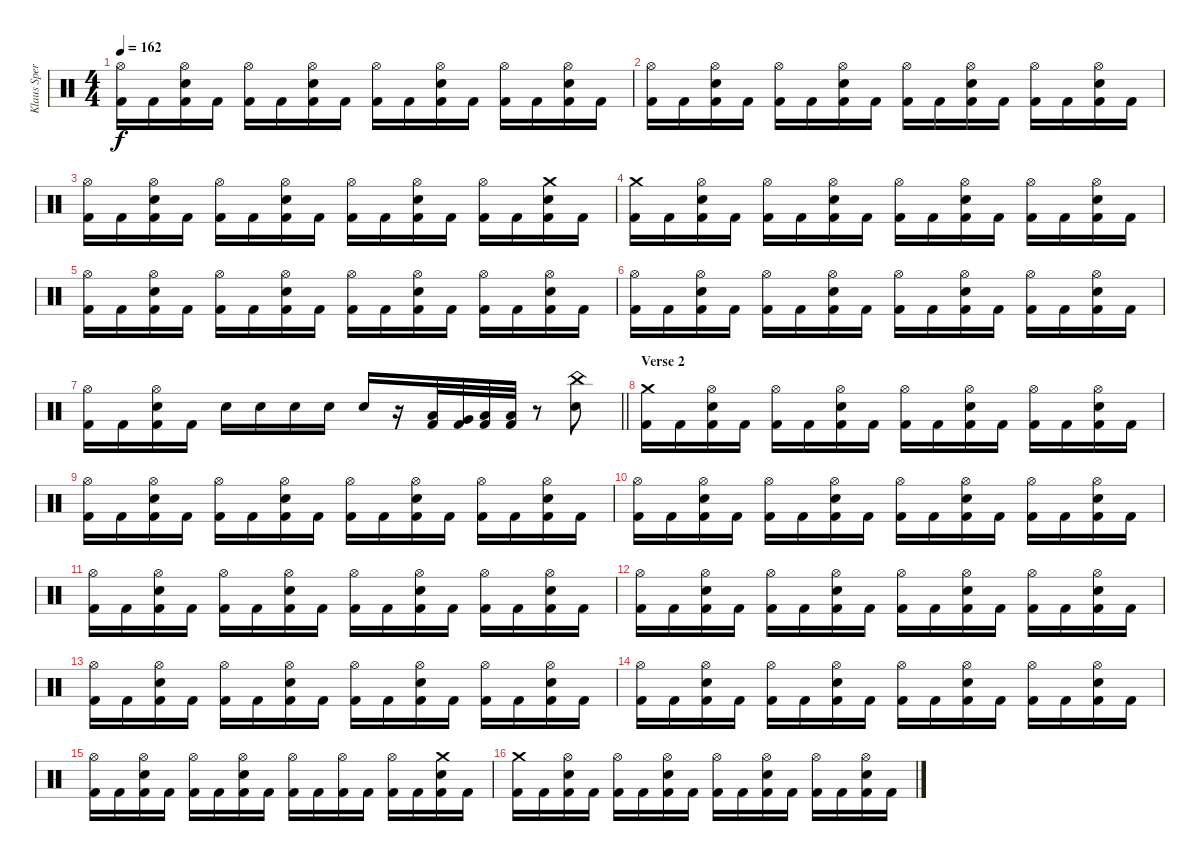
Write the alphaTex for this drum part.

\track ("Klaus Sperling" "Klaus Sper") {instrument percussion}
\staff {score}
\articulation defaults
\ts (4 4)
\tempo 162
\clef neutral
\ks c
("Hi-Hat (open)" "Kick (hit) 2").16{dy f} "Kick (hit) 2".16 ("Hi-Hat (open)" "Electric Snare (hit)" "Kick (hit) 2").16 "Kick (hit) 2".16 ("Hi-Hat (open)" "Kick (hit) 2").16 "Kick (hit) 2".16 ("Hi-Hat (open)" "Electric Snare (hit)" "Kick (hit) 2").16 "Kick (hit) 2".16 ("Hi-Hat (open)" "Kick (hit) 2").16 "Kick (hit) 2".16 ("Hi-Hat (open)" "Electric Snare (hit)" "Kick (hit) 2").16 "Kick (hit) 2".16 ("Hi-Hat (open)" "Kick (hit) 2").16 "Kick (hit) 2".16 ("Hi-Hat (open)" "Electric Snare (hit)" "Kick (hit) 2").16 "Kick (hit) 2".16 |
("Hi-Hat (open)" "Kick (hit) 2").16 "Kick (hit) 2".16 ("Hi-Hat (open)" "Electric Snare (hit)" "Kick (hit) 2").16 "Kick (hit) 2".16 ("Hi-Hat (open)" "Kick (hit) 2").16 "Kick (hit) 2".16 ("Hi-Hat (open)" "Electric Snare (hit)" "Kick (hit) 2").16 "Kick (hit) 2".16 ("Hi-Hat (open)" "Kick (hit) 2").16 "Kick (hit) 2".16 ("Hi-Hat (open)" "Electric Snare (hit)" "Kick (hit) 2").16 "Kick (hit) 2".16 ("Hi-Hat (open)" "Kick (hit) 2").16 "Kick (hit) 2".16 ("Hi-Hat (open)" "Electric Snare (hit)" "Kick (hit) 2").16 "Kick (hit) 2".16 |
("Hi-Hat (open)" "Kick (hit) 2").16 "Kick (hit) 2".16 ("Hi-Hat (open)" "Electric Snare (hit)" "Kick (hit) 2").16 "Kick (hit) 2".16 ("Hi-Hat (open)" "Kick (hit) 2").16 "Kick (hit) 2".16 ("Hi-Hat (open)" "Electric Snare (hit)" "Kick (hit) 2").16 "Kick (hit) 2".16 ("Hi-Hat (open)" "Kick (hit) 2").16 "Kick (hit) 2".16 ("Hi-Hat (open)" "Electric Snare (hit)" "Kick (hit) 2").16 "Kick (hit) 2".16 ("Hi-Hat (open)" "Kick (hit) 2").16 "Kick (hit) 2".16 ("Crash medium (hit)" "Electric Snare (hit)" "Kick (hit) 2").16 "Kick (hit) 2".16 |
("Crash medium (hit)" "Kick (hit) 2").16 "Kick (hit) 2".16 ("Hi-Hat (open)" "Electric Snare (hit)" "Kick (hit) 2").16 "Kick (hit) 2".16 ("Hi-Hat (open)" "Kick (hit) 2").16 "Kick (hit) 2".16 ("Hi-Hat (open)" "Electric Snare (hit)" "Kick (hit) 2").16 "Kick (hit) 2".16 ("Hi-Hat (open)" "Kick (hit) 2").16 "Kick (hit) 2".16 ("Hi-Hat (open)" "Electric Snare (hit)" "Kick (hit) 2").16 "Kick (hit) 2".16 ("Hi-Hat (open)" "Kick (hit) 2").16 "Kick (hit) 2".16 ("Hi-Hat (open)" "Electric Snare (hit)" "Kick (hit) 2").16 "Kick (hit) 2".16 |
("Hi-Hat (open)" "Kick (hit) 2").16 "Kick (hit) 2".16 ("Hi-Hat (open)" "Electric Snare (hit)" "Kick (hit) 2").16 "Kick (hit) 2".16 ("Hi-Hat (open)" "Kick (hit) 2").16 "Kick (hit) 2".16 ("Hi-Hat (open)" "Electric Snare (hit)" "Kick (hit) 2").16 "Kick (hit) 2".16 ("Hi-Hat (open)" "Kick (hit) 2").16 "Kick (hit) 2".16 ("Hi-Hat (open)" "Electric Snare (hit)" "Kick (hit) 2").16 "Kick (hit) 2".16 ("Hi-Hat (open)" "Kick (hit) 2").16 "Kick (hit) 2".16 ("Hi-Hat (open)" "Electric Snare (hit)" "Kick (hit) 2").16 "Kick (hit) 2".16 |
("Hi-Hat (open)" "Kick (hit) 2").16 "Kick (hit) 2".16 ("Hi-Hat (open)" "Electric Snare (hit)" "Kick (hit) 2").16 "Kick (hit) 2".16 ("Hi-Hat (open)" "Kick (hit) 2").16 "Kick (hit) 2".16 ("Hi-Hat (open)" "Electric Snare (hit)" "Kick (hit) 2").16 "Kick (hit) 2".16 ("Hi-Hat (open)" "Kick (hit) 2").16 "Kick (hit) 2".16 ("Hi-Hat (open)" "Electric Snare (hit)" "Kick (hit) 2").16 "Kick (hit) 2".16 ("Hi-Hat (open)" "Kick (hit) 2").16 "Kick (hit) 2".16 ("Hi-Hat (open)" "Electric Snare (hit)" "Kick (hit) 2").16 "Kick (hit) 2".16 |
\barLineRight lightlight
("Hi-Hat (open)" "Kick (hit) 2").16 "Kick (hit) 2".16 ("Hi-Hat (open)" "Electric Snare (hit)" "Kick (hit) 2").16 "Kick (hit) 2".16 "Electric Snare (hit)".16 "Electric Snare (hit)".16 "Electric Snare (hit)".16 "Electric Snare (hit)".16 "Electric Snare (hit)".16 r.16 ("Low Tom (hit)" "Kick (hit) 2").32 ("Very Low Tom (hit)" "Kick (hit) 2").32 ("Low Floor Tom (hit)" "Kick (hit) 2").32 ("Low Floor Tom (hit)" "Kick (hit) 2").32 r.8 ("China (hit)" "Electric Snare (hit)").8 |
\section ("" "Verse 2")
("Crash medium (hit)" "Kick (hit) 2").16 "Kick (hit) 2".16 ("Hi-Hat (open)" "Electric Snare (hit)" "Kick (hit) 2").16 "Kick (hit) 2".16 ("Hi-Hat (open)" "Kick (hit) 2").16 "Kick (hit) 2".16 ("Hi-Hat (open)" "Electric Snare (hit)" "Kick (hit) 2").16 "Kick (hit) 2".16 ("Hi-Hat (open)" "Kick (hit) 2").16 "Kick (hit) 2".16 ("Hi-Hat (open)" "Electric Snare (hit)" "Kick (hit) 2").16 "Kick (hit) 2".16 ("Hi-Hat (open)" "Kick (hit) 2").16 "Kick (hit) 2".16 ("Hi-Hat (open)" "Electric Snare (hit)" "Kick (hit) 2").16 "Kick (hit) 2".16 |
("Hi-Hat (open)" "Kick (hit) 2").16 "Kick (hit) 2".16 ("Hi-Hat (open)" "Electric Snare (hit)" "Kick (hit) 2").16 "Kick (hit) 2".16 ("Hi-Hat (open)" "Kick (hit) 2").16 "Kick (hit) 2".16 ("Hi-Hat (open)" "Electric Snare (hit)" "Kick (hit) 2").16 "Kick (hit) 2".16 ("Hi-Hat (open)" "Kick (hit) 2").16 "Kick (hit) 2".16 ("Hi-Hat (open)" "Electric Snare (hit)" "Kick (hit) 2").16 "Kick (hit) 2".16 ("Hi-Hat (open)" "Kick (hit) 2").16 "Kick (hit) 2".16 ("Hi-Hat (open)" "Electric Snare (hit)" "Kick (hit) 2").16 "Kick (hit) 2".16 |
("Hi-Hat (open)" "Kick (hit) 2").16 "Kick (hit) 2".16 ("Hi-Hat (open)" "Electric Snare (hit)" "Kick (hit) 2").16 "Kick (hit) 2".16 ("Hi-Hat (open)" "Kick (hit) 2").16 "Kick (hit) 2".16 ("Hi-Hat (open)" "Electric Snare (hit)" "Kick (hit) 2").16 "Kick (hit) 2".16 ("Hi-Hat (open)" "Kick (hit) 2").16 "Kick (hit) 2".16 ("Hi-Hat (open)" "Electric Snare (hit)" "Kick (hit) 2").16 "Kick (hit) 2".16 ("Hi-Hat (open)" "Kick (hit) 2").16 "Kick (hit) 2".16 ("Hi-Hat (open)" "Electric Snare (hit)" "Kick (hit) 2").16 "Kick (hit) 2".16 |
("Hi-Hat (open)" "Kick (hit) 2").16 "Kick (hit) 2".16 ("Hi-Hat (open)" "Electric Snare (hit)" "Kick (hit) 2").16 "Kick (hit) 2".16 ("Hi-Hat (open)" "Kick (hit) 2").16 "Kick (hit) 2".16 ("Hi-Hat (open)" "Electric Snare (hit)" "Kick (hit) 2").16 "Kick (hit) 2".16 ("Hi-Hat (open)" "Kick (hit) 2").16 "Kick (hit) 2".16 ("Hi-Hat (open)" "Electric Snare (hit)" "Kick (hit) 2").16 "Kick (hit) 2".16 ("Hi-Hat (open)" "Kick (hit) 2").16 "Kick (hit) 2".16 ("Hi-Hat (open)" "Electric Snare (hit)" "Kick (hit) 2").16 "Kick (hit) 2".16 |
("Hi-Hat (open)" "Kick (hit) 2").16 "Kick (hit) 2".16 ("Hi-Hat (open)" "Electric Snare (hit)" "Kick (hit) 2").16 "Kick (hit) 2".16 ("Hi-Hat (open)" "Kick (hit) 2").16 "Kick (hit) 2".16 ("Hi-Hat (open)" "Electric Snare (hit)" "Kick (hit) 2").16 "Kick (hit) 2".16 ("Hi-Hat (open)" "Kick (hit) 2").16 "Kick (hit) 2".16 ("Hi-Hat (open)" "Electric Snare (hit)" "Kick (hit) 2").16 "Kick (hit) 2".16 ("Hi-Hat (open)" "Kick (hit) 2").16 "Kick (hit) 2".16 ("Hi-Hat (open)" "Electric Snare (hit)" "Kick (hit) 2").16 "Kick (hit) 2".16 |
("Hi-Hat (open)" "Kick (hit) 2").16 "Kick (hit) 2".16 ("Hi-Hat (open)" "Electric Snare (hit)" "Kick (hit) 2").16 "Kick (hit) 2".16 ("Hi-Hat (open)" "Kick (hit) 2").16 "Kick (hit) 2".16 ("Hi-Hat (open)" "Electric Snare (hit)" "Kick (hit) 2").16 "Kick (hit) 2".16 ("Hi-Hat (open)" "Kick (hit) 2").16 "Kick (hit) 2".16 ("Hi-Hat (open)" "Electric Snare (hit)" "Kick (hit) 2").16 "Kick (hit) 2".16 ("Hi-Hat (open)" "Kick (hit) 2").16 "Kick (hit) 2".16 ("Hi-Hat (open)" "Electric Snare (hit)" "Kick (hit) 2").16 "Kick (hit) 2".16 |
("Hi-Hat (open)" "Kick (hit) 2").16 "Kick (hit) 2".16 ("Hi-Hat (open)" "Electric Snare (hit)" "Kick (hit) 2").16 "Kick (hit) 2".16 ("Hi-Hat (open)" "Kick (hit) 2").16 "Kick (hit) 2".16 ("Hi-Hat (open)" "Electric Snare (hit)" "Kick (hit) 2").16 "Kick (hit) 2".16 ("Hi-Hat (open)" "Kick (hit) 2").16 "Kick (hit) 2".16 ("Hi-Hat (open)" "Electric Snare (hit)" "Kick (hit) 2").16 "Kick (hit) 2".16 ("Hi-Hat (open)" "Kick (hit) 2").16 "Kick (hit) 2".16 ("Hi-Hat (open)" "Electric Snare (hit)" "Kick (hit) 2").16 "Kick (hit) 2".16 |
("Hi-Hat (open)" "Kick (hit) 2").16 "Kick (hit) 2".16 ("Hi-Hat (open)" "Electric Snare (hit)" "Kick (hit) 2").16 "Kick (hit) 2".16 ("Hi-Hat (open)" "Kick (hit) 2").16 "Kick (hit) 2".16 ("Hi-Hat (open)" "Electric Snare (hit)" "Kick (hit) 2").16 "Kick (hit) 2".16 ("Hi-Hat (open)" "Kick (hit) 2").16 "Kick (hit) 2".16 ("Hi-Hat (open)" "Kick (hit) 2").16 "Kick (hit) 2".16 ("Hi-Hat (open)" "Kick (hit) 2").16 "Kick (hit) 2".16 ("Crash medium (hit)" "Electric Snare (hit)" "Kick (hit) 2").16 "Kick (hit) 2".16 |
("Crash medium (hit)" "Kick (hit) 2").16 "Kick (hit) 2".16 ("Hi-Hat (open)" "Electric Snare (hit)" "Kick (hit) 2").16 "Kick (hit) 2".16 ("Hi-Hat (open)" "Kick (hit) 2").16 "Kick (hit) 2".16 ("Hi-Hat (open)" "Electric Snare (hit)" "Kick (hit) 2").16 "Kick (hit) 2".16 ("Hi-Hat (open)" "Kick (hit) 2").16 "Kick (hit) 2".16 ("Hi-Hat (open)" "Electric Snare (hit)" "Kick (hit) 2").16 "Kick (hit) 2".16 ("Hi-Hat (open)" "Kick (hit) 2").16 "Kick (hit) 2".16 ("Hi-Hat (open)" "Electric Snare (hit)" "Kick (hit) 2").16 "Kick (hit) 2".16
